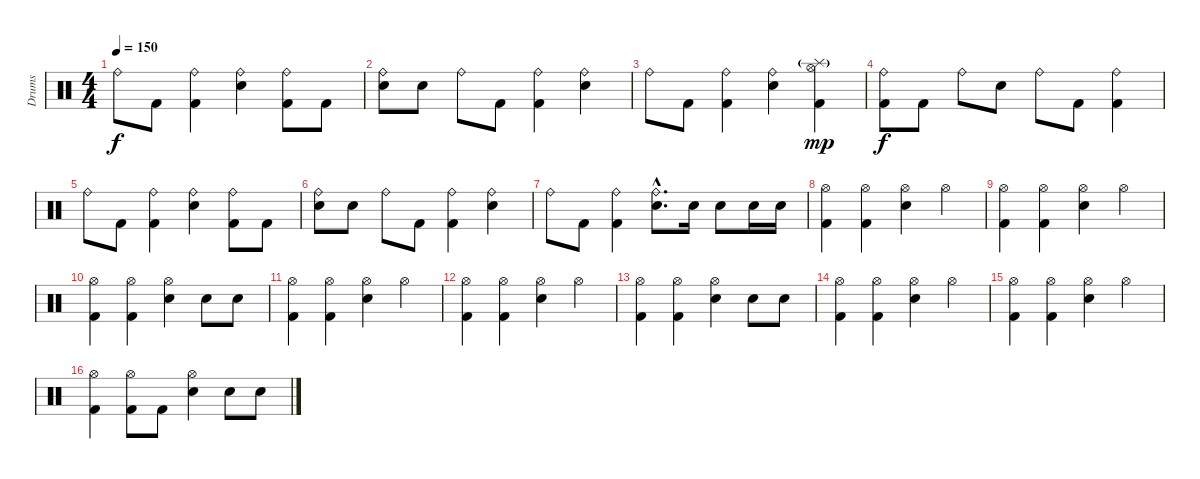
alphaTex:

\track ("Drums" "Drums") {instrument percussion}
\staff {score}
\articulation defaults
\ts (4 4)
\tempo 150
\clef neutral
\ks c "Ride (bell)".8{dy f} "Kick (hit) 2".8
("Ride (bell)" "Kick (hit) 2").4 ("Ride (bell)" "Electric Snare (hit)").4 ("Ride (bell)" "Kick (hit) 2").8 "Kick (hit) 2".8 |
("Ride (bell)" "Electric Snare (hit)").8 "Electric Snare (hit)".8 "Ride (bell)".8 "Kick (hit) 2".8 ("Ride (bell)" "Kick (hit) 2").4 ("Ride (bell)" "Electric Snare (hit)").4 |
"Ride (bell)".8 "Kick (hit) 2".8 ("Ride (bell)" "Kick (hit) 2").4 ("Ride (bell)" "Electric Snare (hit)").4 ("Hi-Hat (open)" "Splash (hit)"{g} "Kick (hit) 2").4{dy mp} |
("Ride (bell)" "Kick (hit) 2").8{dy f} "Kick (hit) 2".8 "Ride (bell)".8 "Electric Snare (hit)".8 "Ride (bell)".8 "Kick (hit) 2".8 ("Ride (bell)" "Kick (hit) 2").4 |
"Ride (bell)".8 "Kick (hit) 2".8 ("Ride (bell)" "Kick (hit) 2").4 ("Ride (bell)" "Electric Snare (hit)").4 ("Ride (bell)" "Kick (hit) 2").8 "Kick (hit) 2".8 |
("Ride (bell)" "Electric Snare (hit)").8 "Electric Snare (hit)".8 "Ride (bell)".8 "Kick (hit) 2".8 ("Ride (bell)" "Kick (hit) 2").4 ("Ride (bell)" "Electric Snare (hit)").4 |
"Ride (bell)".8 "Kick (hit) 2".8 ("Ride (bell)" "Kick (hit) 2").4 ("Ride (bell)"{hac} "Electric Snare (hit)"{hac}).8{d} "Electric Snare (hit)".16 "Electric Snare (hit)".8 "Electric Snare (hit)".16 "Electric Snare (hit)".16 |
("Hi-Hat (open)" "Kick (hit) 2").4 ("Hi-Hat (open)" "Kick (hit) 2").4 ("Hi-Hat (open)" "Electric Snare (hit)").4 "Hi-Hat (open)".4 |
("Hi-Hat (open)" "Kick (hit) 2").4 ("Hi-Hat (open)" "Kick (hit) 2").4 ("Hi-Hat (open)" "Electric Snare (hit)").4 "Hi-Hat (open)".4 |
("Hi-Hat (open)" "Kick (hit) 2").4 ("Hi-Hat (open)" "Kick (hit) 2").4 ("Hi-Hat (open)" "Electric Snare (hit)").4 "Electric Snare (hit)".8 "Electric Snare (hit)".8 |
("Hi-Hat (open)" "Kick (hit) 2").4 ("Hi-Hat (open)" "Kick (hit) 2").4 ("Hi-Hat (open)" "Electric Snare (hit)").4 "Hi-Hat (open)".4 |
("Hi-Hat (open)" "Kick (hit) 2").4 ("Hi-Hat (open)" "Kick (hit) 2").4 ("Hi-Hat (open)" "Electric Snare (hit)").4 "Hi-Hat (open)".4 |
("Hi-Hat (open)" "Kick (hit) 2").4 ("Hi-Hat (open)" "Kick (hit) 2").4 ("Hi-Hat (open)" "Electric Snare (hit)").4 "Electric Snare (hit)".8 "Electric Snare (hit)".8 |
("Hi-Hat (open)" "Kick (hit) 2").4 ("Hi-Hat (open)" "Kick (hit) 2").4 ("Hi-Hat (open)" "Electric Snare (hit)").4 "Hi-Hat (open)".4 |
("Hi-Hat (open)" "Kick (hit) 2").4 ("Hi-Hat (open)" "Kick (hit) 2").4 ("Hi-Hat (open)" "Electric Snare (hit)").4 "Hi-Hat (open)".4 |
("Hi-Hat (open)" "Kick (hit) 2").4 ("Hi-Hat (open)" "Kick (hit) 2").8 "Kick (hit) 2".8 ("Hi-Hat (open)" "Electric Snare (hit)").4 "Electric Snare (hit)".8 "Electric Snare (hit)".8
